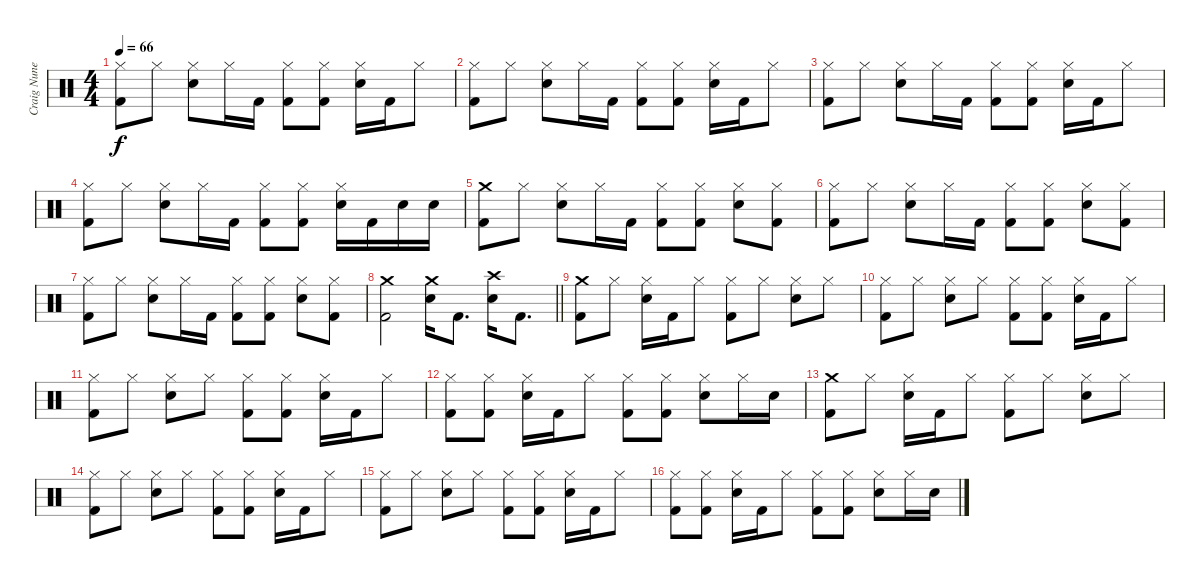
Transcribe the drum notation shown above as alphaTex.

\track ("Craig Nunenmacher" "Craig Nune") {instrument percussion}
\staff {score}
\articulation defaults
\ts (4 4)
\tempo 66
\clef neutral
\ks c
("Hi-Hat (closed)" "Kick (hit) 2").8{dy f} "Hi-Hat (closed)".8 ("Hi-Hat (closed)" "Snare (hit) 2").8 "Hi-Hat (closed)".16 "Kick (hit) 2".16 ("Hi-Hat (closed)" "Kick (hit) 2").8 ("Hi-Hat (closed)" "Kick (hit) 2").8 ("Hi-Hat (closed)" "Snare (hit) 2").16 "Kick (hit) 2".16 "Hi-Hat (closed)".8 |
("Hi-Hat (closed)" "Kick (hit) 2").8 "Hi-Hat (closed)".8 ("Hi-Hat (closed)" "Snare (hit) 2").8 "Hi-Hat (closed)".16 "Kick (hit) 2".16 ("Hi-Hat (closed)" "Kick (hit) 2").8 ("Hi-Hat (closed)" "Kick (hit) 2").8 ("Hi-Hat (closed)" "Snare (hit) 2").16 "Kick (hit) 2".16 "Hi-Hat (closed)".8 |
("Hi-Hat (closed)" "Kick (hit) 2").8 "Hi-Hat (closed)".8 ("Hi-Hat (closed)" "Snare (hit) 2").8 "Hi-Hat (closed)".16 "Kick (hit) 2".16 ("Hi-Hat (closed)" "Kick (hit) 2").8 ("Hi-Hat (closed)" "Kick (hit) 2").8 ("Hi-Hat (closed)" "Snare (hit) 2").16 "Kick (hit) 2".16 "Hi-Hat (closed)".8 |
("Hi-Hat (closed)" "Kick (hit) 2").8 "Hi-Hat (closed)".8 ("Hi-Hat (closed)" "Snare (hit) 2").8 "Hi-Hat (closed)".16 "Kick (hit) 2".16 ("Hi-Hat (closed)" "Kick (hit) 2").8 ("Hi-Hat (closed)" "Kick (hit) 2").8 ("Hi-Hat (closed)" "Snare (hit) 2").16 "Kick (hit) 2".16 "Snare (hit) 2".16 "Snare (hit) 2".16 |
("Crash medium (hit)" "Kick (hit) 2").8 "Hi-Hat (closed)".8 ("Hi-Hat (closed)" "Snare (hit) 2").8 "Hi-Hat (closed)".16 "Kick (hit) 2".16 ("Hi-Hat (closed)" "Kick (hit) 2").8 ("Hi-Hat (closed)" "Kick (hit) 2").8 ("Hi-Hat (closed)" "Snare (hit) 2").8 ("Hi-Hat (closed)" "Kick (hit) 2").8 |
("Hi-Hat (closed)" "Kick (hit) 2").8 "Hi-Hat (closed)".8 ("Hi-Hat (closed)" "Snare (hit) 2").8 "Hi-Hat (closed)".16 "Kick (hit) 2".16 ("Hi-Hat (closed)" "Kick (hit) 2").8 ("Hi-Hat (closed)" "Kick (hit) 2").8 ("Hi-Hat (closed)" "Snare (hit) 2").8 ("Hi-Hat (closed)" "Kick (hit) 2").8 |
("Hi-Hat (closed)" "Kick (hit) 2").8 "Hi-Hat (closed)".8 ("Hi-Hat (closed)" "Snare (hit) 2").8 "Hi-Hat (closed)".16 "Kick (hit) 2".16 ("Hi-Hat (closed)" "Kick (hit) 2").8 ("Hi-Hat (closed)" "Kick (hit) 2").8 ("Hi-Hat (closed)" "Snare (hit) 2").8 ("Hi-Hat (closed)" "Kick (hit) 2").8 |
\barLineRight lightlight
("Crash medium (hit)" "Kick (hit) 2").2 ("Crash medium (hit)" "Snare (hit) 2").16 "Kick (hit) 2".8{d} ("Crash high (hit)" "Snare (hit) 2").16 "Kick (hit) 2".8{d} |
("Crash medium (hit)" "Kick (hit) 2").8 "Hi-Hat (closed)".8 ("Hi-Hat (closed)" "Snare (hit) 2").16 "Kick (hit) 2".16 "Hi-Hat (closed)".8 ("Hi-Hat (closed)" "Kick (hit) 2").8 "Hi-Hat (closed)".8 ("Hi-Hat (closed)" "Snare (hit) 2").8 "Hi-Hat (closed)".8 |
("Hi-Hat (closed)" "Kick (hit) 2").8 "Hi-Hat (closed)".8 ("Hi-Hat (closed)" "Snare (hit) 2").8 "Hi-Hat (closed)".8 ("Hi-Hat (closed)" "Kick (hit) 2").8 ("Hi-Hat (closed)" "Kick (hit) 2").8 ("Hi-Hat (closed)" "Snare (hit) 2").16 "Kick (hit) 2".16 "Hi-Hat (closed)".8 |
("Hi-Hat (closed)" "Kick (hit) 2").8 "Hi-Hat (closed)".8 ("Hi-Hat (closed)" "Snare (hit) 2").8 "Hi-Hat (closed)".8 ("Hi-Hat (closed)" "Kick (hit) 2").8 ("Hi-Hat (closed)" "Kick (hit) 2").8 ("Hi-Hat (closed)" "Snare (hit) 2").16 "Kick (hit) 2".16 "Hi-Hat (closed)".8 |
("Hi-Hat (closed)" "Kick (hit) 2").8 ("Hi-Hat (closed)" "Kick (hit) 2").8 ("Hi-Hat (closed)" "Snare (hit) 2").16 "Kick (hit) 2".16 "Hi-Hat (closed)".8 ("Hi-Hat (closed)" "Kick (hit) 2").8 ("Hi-Hat (closed)" "Kick (hit) 2").8 ("Hi-Hat (closed)" "Snare (hit) 2").8 "Hi-Hat (closed)".16 "Snare (hit) 2".16 |
("Crash medium (hit)" "Kick (hit) 2").8 "Hi-Hat (closed)".8 ("Hi-Hat (closed)" "Snare (hit) 2").16 "Kick (hit) 2".16 "Hi-Hat (closed)".8 ("Hi-Hat (closed)" "Kick (hit) 2").8 "Hi-Hat (closed)".8 ("Hi-Hat (closed)" "Snare (hit) 2").8 "Hi-Hat (closed)".8 |
("Hi-Hat (closed)" "Kick (hit) 2").8 "Hi-Hat (closed)".8 ("Hi-Hat (closed)" "Snare (hit) 2").8 "Hi-Hat (closed)".8 ("Hi-Hat (closed)" "Kick (hit) 2").8 ("Hi-Hat (closed)" "Kick (hit) 2").8 ("Hi-Hat (closed)" "Snare (hit) 2").16 "Kick (hit) 2".16 "Hi-Hat (closed)".8 |
("Hi-Hat (closed)" "Kick (hit) 2").8 "Hi-Hat (closed)".8 ("Hi-Hat (closed)" "Snare (hit) 2").8 "Hi-Hat (closed)".8 ("Hi-Hat (closed)" "Kick (hit) 2").8 ("Hi-Hat (closed)" "Kick (hit) 2").8 ("Hi-Hat (closed)" "Snare (hit) 2").16 "Kick (hit) 2".16 "Hi-Hat (closed)".8 |
("Hi-Hat (closed)" "Kick (hit) 2").8 ("Hi-Hat (closed)" "Kick (hit) 2").8 ("Hi-Hat (closed)" "Snare (hit) 2").16 "Kick (hit) 2".16 "Hi-Hat (closed)".8 ("Hi-Hat (closed)" "Kick (hit) 2").8 ("Hi-Hat (closed)" "Kick (hit) 2").8 ("Hi-Hat (closed)" "Snare (hit) 2").8 "Hi-Hat (closed)".16 "Snare (hit) 2".16
